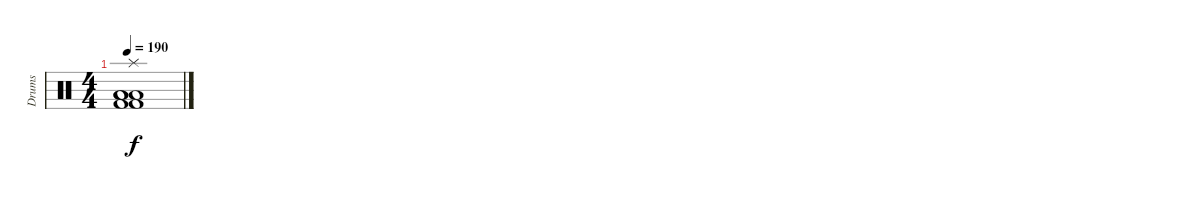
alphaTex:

\track ("Drums" "Drums") {instrument percussion}
\staff {score}
\articulation defaults
\ts (4 4)
\tempo 190
\clef neutral
\ks c
("Splash (hit)" "Low Tom (hit)" "Low Floor Tom (hit)" "Low Floor Tom (hit)" "Kick (hit) 2" "Kick (hit) 2").1{dy f}
